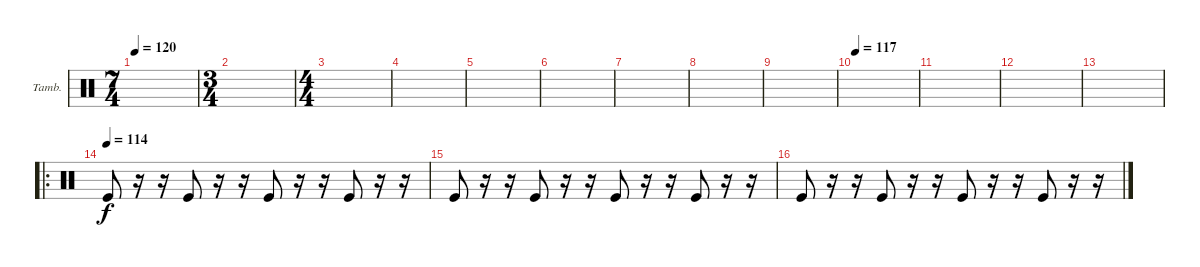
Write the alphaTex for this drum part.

\defaultSystemsLayout 4
\bracketExtendMode groupsimilarinstruments
\firstSystemTrackNameOrientation horizontal
\otherSystemsTrackNameOrientation horizontal
\track ("Tambourine" "Tamb.") {instrument percussion}
\staff {score}
\articulation defaults
\ts (7 4)
\tempo 120
\clef neutral
\scale
0.333333
\ks c
|
\ts (3 4)
\scale
0.333333 |
\ts (4 4)
\scale
0.333333 |
\scale
0.333333 |
\scale
0.333333 |
\scale
0.333333 |
\scale
0.333333 |
\scale
0.333333 |
\scale
0.333333 |
\tempo 117
\scale
0.333333 |
\scale
0.333333 |
\scale
0.333333 |
\scale
0.311475 |
\ro
\tempo 114
\scale
0.377049 "Kick (hit)".8 r.16 r.16 "Kick (hit)".8 r.16 r.16 "Kick (hit)".8 r.16 r.16 "Kick (hit)".8 r.16 r.16 |
\scale
0.311475 "Kick (hit)".8 r.16 r.16 "Kick (hit)".8 r.16 r.16 "Kick (hit)".8 r.16 r.16 "Kick (hit)".8 r.16 r.16 |
\scale
0.256757 "Kick (hit)".8 r.16 r.16 "Kick (hit)".8 r.16 r.16 "Kick (hit)".8 r.16 r.16 "Kick (hit)".8 r.16 r.16
